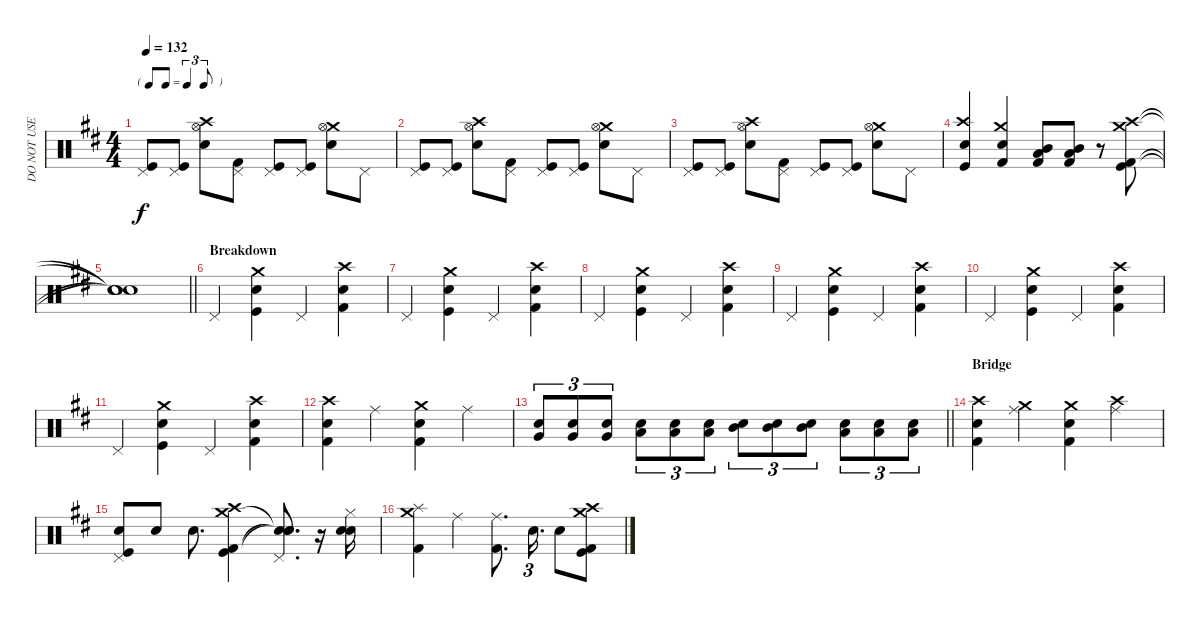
\track ("DO NOT USE" "DO NOT USE") {solo instrument percussion}
\staff {score}
\articulation defaults
\ts (4 4)
\tf triplet8th
\tempo 132
\clef neutral
\ks d
("Kick (hit)" "Pedal Hi-Hat (hit)").8{dy f} ("Kick (hit)" "Pedal Hi-Hat (hit)").8 ("Crash high (hit)" "Snare (hit) 2" "Hi-Hat (open)").8 ("Kick (hit) 2" "Pedal Hi-Hat (hit)").8 ("Kick (hit)" "Pedal Hi-Hat (hit)").8 ("Kick (hit)" "Pedal Hi-Hat (hit)").8 ("Crash medium (hit)" "Electric Snare (hit)" "Hi-Hat (open)").8 "Pedal Hi-Hat (hit)".8 |
("Kick (hit)" "Pedal Hi-Hat (hit)").8 ("Kick (hit)" "Pedal Hi-Hat (hit)").8 ("Crash high (hit)" "Snare (hit) 2" "Hi-Hat (open)").8 ("Kick (hit) 2" "Pedal Hi-Hat (hit)").8 ("Kick (hit)" "Pedal Hi-Hat (hit)").8 ("Kick (hit)" "Pedal Hi-Hat (hit)").8 ("Crash medium (hit)" "Electric Snare (hit)" "Hi-Hat (open)").8 "Pedal Hi-Hat (hit)".8 |
("Kick (hit)" "Pedal Hi-Hat (hit)").8 ("Kick (hit)" "Pedal Hi-Hat (hit)").8 ("Crash high (hit)" "Snare (hit) 2" "Hi-Hat (open)").8 ("Kick (hit) 2" "Pedal Hi-Hat (hit)").8 ("Kick (hit)" "Pedal Hi-Hat (hit)").8 ("Kick (hit)" "Pedal Hi-Hat (hit)").8 ("Crash medium (hit)" "Electric Snare (hit)" "Hi-Hat (open)").8 "Pedal Hi-Hat (hit)".8 |
("Crash high (hit)" "Snare (hit) 2" "Kick (hit)").4 ("Crash medium (hit)" "Electric Snare (hit)" "Kick (hit) 2").4 ("Kick (hit) 2" "Mid Tom (hit)" "Low Tom (hit)").8 ("Kick (hit) 2" "Mid Tom (hit)" "Low Tom (hit)").8 r.8 ("Kick (hit)" "Crash high (hit)" "Crash medium (hit)" "Kick (hit) 2").8 |
\barLineRight lightlight
("Snare (hit)"{t} "Snare (hit)"{t} "Snare (hit)"{t} "Snare (hit)"{t}).1 |
\section ("" "Breakdown")
"Pedal Hi-Hat (hit)".4 ("Snare (hit) 2" "Kick (hit)" "Crash medium (hit)").4 "Pedal Hi-Hat (hit)".4 ("Electric Snare (hit)" "Kick (hit) 2" "Crash high (hit)").4 |
"Pedal Hi-Hat (hit)".4 ("Snare (hit) 2" "Kick (hit)" "Crash medium (hit)").4 "Pedal Hi-Hat (hit)".4 ("Electric Snare (hit)" "Kick (hit) 2" "Crash high (hit)").4 |
"Pedal Hi-Hat (hit)".4 ("Snare (hit) 2" "Kick (hit)" "Crash medium (hit)").4 "Pedal Hi-Hat (hit)".4 ("Electric Snare (hit)" "Kick (hit) 2" "Crash high (hit)").4 |
"Pedal Hi-Hat (hit)".4 ("Snare (hit) 2" "Kick (hit)" "Crash medium (hit)").4 "Pedal Hi-Hat (hit)".4 ("Electric Snare (hit)" "Kick (hit) 2" "Crash high (hit)").4 |
"Pedal Hi-Hat (hit)".4 ("Snare (hit) 2" "Kick (hit)" "Crash medium (hit)").4 "Pedal Hi-Hat (hit)".4 ("Electric Snare (hit)" "Kick (hit) 2" "Crash high (hit)").4 |
"Pedal Hi-Hat (hit)".4 ("Snare (hit) 2" "Kick (hit)" "Crash medium (hit)").4 "Pedal Hi-Hat (hit)".4 ("Electric Snare (hit)" "Kick (hit) 2" "Crash high (hit)").4 |
("Electric Snare (hit)" "Kick (hit) 2" "Crash high (hit)").4 "Ride (middle)".4 ("Snare (hit) 2" "Kick (hit) 2" "Crash medium (hit)").4 "Ride (middle)".4 |
\barLineRight lightlight
("Electric Snare (hit)" "Very Low Tom (hit)").8{tu (3 2)} ("Electric Snare (hit)" "Very Low Tom (hit)").8{tu (3 2)} ("Electric Snare (hit)" "Very Low Tom (hit)").8{tu (3 2)} ("Snare (hit) 2" "Low Tom (hit)").8{tu (3 2)} ("Snare (hit) 2" "Low Tom (hit)").8{tu (3 2)} ("Snare (hit) 2" "Low Tom (hit)").8{tu (3 2)} ("Electric Snare (hit)" "Mid Tom (hit)").8{tu (3 2)} ("Electric Snare (hit)" "Mid Tom (hit)").8{tu (3 2)} ("Electric Snare (hit)" "Mid Tom (hit)").8{tu (3 2)} ("Electric Snare (hit)" "Low Floor Tom (hit)").8{tu (3 2)} ("Electric Snare (hit)" "Low Floor Tom (hit)").8{tu (3 2)} ("Electric Snare (hit)" "Low Floor Tom (hit)").8{tu (3 2)} |
\section ("" "Bridge")
("Electric Snare (hit)" "Kick (hit) 2" "Crash high (hit)").4 ("Ride (middle)" "Crash medium (hit)").4 ("Snare (hit) 2" "Kick (hit) 2" "Crash medium (hit)").4 ("Ride (middle)" "Crash high (hit)").4 |
("Kick (hit)" "Snare (hit) 2" "Pedal Hi-Hat (hit)").8 "Electric Snare (hit)".8 "Snare (hit) 2".8{d} ("Kick (hit) 2" "Kick (hit)" "Crash high (hit)" "Crash medium (hit)").4 ("Snare (hit)"{t} "Snare (hit)"{t} "Pedal Hi-Hat (hit)" "Snare (hit)"{t}).8{d} r.16 ("Hi-Hat (closed)" "Snare (hit) 2" "Electric Snare (hit)").16 |
("Splash (hit)" "Kick (hit) 2" "Crash medium (hit)").4 "Ride (middle)".4 ("Ride (middle)" "Kick (hit) 2").8{d} "Electric Snare (hit)".16{d tu (3 2)} "Snare (hit) 2".8 ("Kick (hit) 2" "Kick (hit)" "Crash high (hit)" "Crash medium (hit)").8
